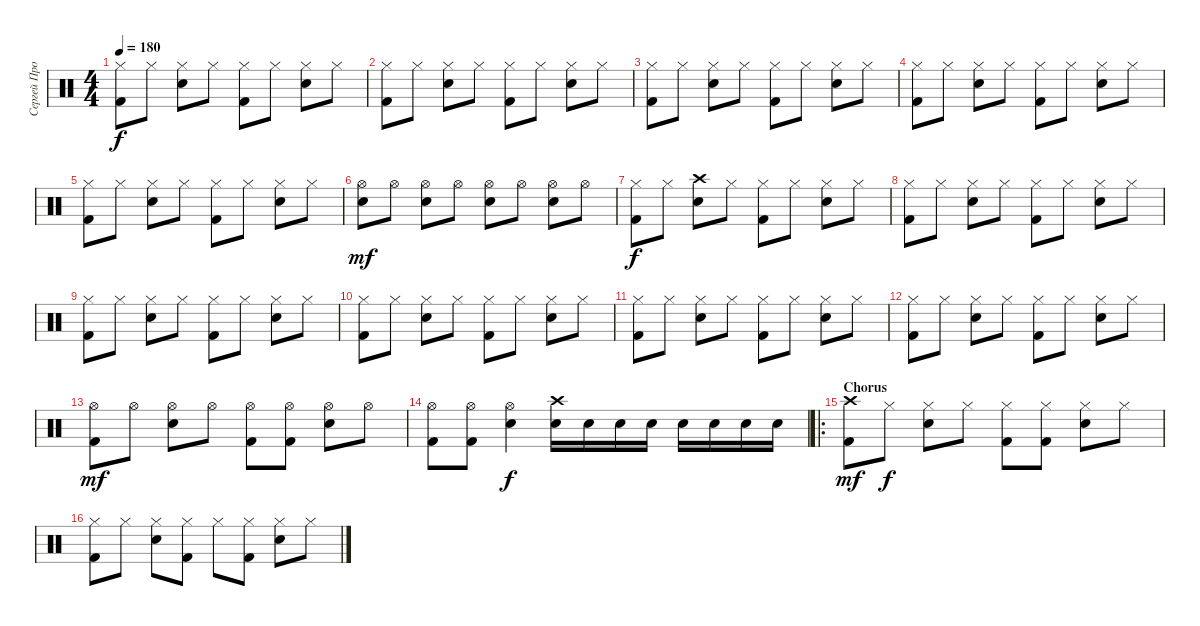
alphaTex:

\track ("Сергей Прокофьев" "Сергей Про") {instrument percussion}
\staff {score}
\articulation defaults
\ts (4 4)
\tempo 180
\clef neutral
\ks c
("Hi-Hat (closed)" "Kick (hit) 2").8{dy f} "Hi-Hat (closed)".8 ("Hi-Hat (closed)" "Snare (hit) 2").8 "Hi-Hat (closed)".8 ("Hi-Hat (closed)" "Kick (hit) 2").8 "Hi-Hat (closed)".8 ("Hi-Hat (closed)" "Snare (hit) 2").8 "Hi-Hat (closed)".8 |
("Hi-Hat (closed)" "Kick (hit) 2").8 "Hi-Hat (closed)".8 ("Hi-Hat (closed)" "Snare (hit) 2").8 "Hi-Hat (closed)".8 ("Hi-Hat (closed)" "Kick (hit) 2").8 "Hi-Hat (closed)".8 ("Hi-Hat (closed)" "Snare (hit) 2").8 "Hi-Hat (closed)".8 |
("Hi-Hat (closed)" "Kick (hit) 2").8 "Hi-Hat (closed)".8 ("Hi-Hat (closed)" "Snare (hit) 2").8 "Hi-Hat (closed)".8 ("Hi-Hat (closed)" "Kick (hit) 2").8 "Hi-Hat (closed)".8 ("Hi-Hat (closed)" "Snare (hit) 2").8 "Hi-Hat (closed)".8 |
("Hi-Hat (closed)" "Kick (hit) 2").8 "Hi-Hat (closed)".8 ("Hi-Hat (closed)" "Snare (hit) 2").8 "Hi-Hat (closed)".8 ("Hi-Hat (closed)" "Kick (hit) 2").8 "Hi-Hat (closed)".8 ("Hi-Hat (closed)" "Snare (hit) 2").8 "Hi-Hat (closed)".8 |
("Hi-Hat (closed)" "Kick (hit) 2").8 "Hi-Hat (closed)".8 ("Hi-Hat (closed)" "Snare (hit) 2").8 "Hi-Hat (closed)".8 ("Hi-Hat (closed)" "Kick (hit) 2").8 "Hi-Hat (closed)".8 ("Hi-Hat (closed)" "Snare (hit) 2").8 "Hi-Hat (closed)".8 |
("Hi-Hat (open)" "Snare (hit) 2").8{dy mf} "Hi-Hat (open)".8 ("Hi-Hat (open)" "Snare (hit) 2").8 "Hi-Hat (open)".8 ("Hi-Hat (open)" "Snare (hit) 2").8 "Hi-Hat (open)".8 ("Hi-Hat (open)" "Snare (hit) 2").8 "Hi-Hat (open)".8 |
("Hi-Hat (closed)" "Kick (hit) 2").8{dy f} "Hi-Hat (closed)".8 ("Crash high (hit)" "Snare (hit) 2").8 "Hi-Hat (closed)".8 ("Hi-Hat (closed)" "Kick (hit) 2").8 "Hi-Hat (closed)".8 ("Hi-Hat (closed)" "Snare (hit) 2").8 "Hi-Hat (closed)".8 |
("Hi-Hat (closed)" "Kick (hit) 2").8 "Hi-Hat (closed)".8 ("Hi-Hat (closed)" "Snare (hit) 2").8 "Hi-Hat (closed)".8 ("Hi-Hat (closed)" "Kick (hit) 2").8 "Hi-Hat (closed)".8 ("Hi-Hat (closed)" "Snare (hit) 2").8 "Hi-Hat (closed)".8 |
("Hi-Hat (closed)" "Kick (hit) 2").8 "Hi-Hat (closed)".8 ("Hi-Hat (closed)" "Snare (hit) 2").8 "Hi-Hat (closed)".8 ("Hi-Hat (closed)" "Kick (hit) 2").8 "Hi-Hat (closed)".8 ("Hi-Hat (closed)" "Snare (hit) 2").8 "Hi-Hat (closed)".8 |
("Hi-Hat (closed)" "Kick (hit) 2").8 "Hi-Hat (closed)".8 ("Hi-Hat (closed)" "Snare (hit) 2").8 "Hi-Hat (closed)".8 ("Hi-Hat (closed)" "Kick (hit) 2").8 "Hi-Hat (closed)".8 ("Hi-Hat (closed)" "Snare (hit) 2").8 "Hi-Hat (closed)".8 |
("Hi-Hat (closed)" "Kick (hit) 2").8 "Hi-Hat (closed)".8 ("Hi-Hat (closed)" "Snare (hit) 2").8 "Hi-Hat (closed)".8 ("Hi-Hat (closed)" "Kick (hit) 2").8 "Hi-Hat (closed)".8 ("Hi-Hat (closed)" "Snare (hit) 2").8 "Hi-Hat (closed)".8 |
("Hi-Hat (closed)" "Kick (hit) 2").8 "Hi-Hat (closed)".8 ("Hi-Hat (closed)" "Snare (hit) 2").8 "Hi-Hat (closed)".8 ("Hi-Hat (closed)" "Kick (hit) 2").8 "Hi-Hat (closed)".8 ("Hi-Hat (closed)" "Snare (hit) 2").8 "Hi-Hat (closed)".8 |
("Hi-Hat (open)" "Kick (hit) 2").8{dy mf} "Hi-Hat (open)".8 ("Hi-Hat (open)" "Snare (hit) 2").8 "Hi-Hat (open)".8 ("Hi-Hat (open)" "Kick (hit) 2").8 ("Hi-Hat (open)" "Kick (hit) 2").8 ("Hi-Hat (open)" "Snare (hit) 2").8 "Hi-Hat (open)".8 |
("Hi-Hat (open)" "Kick (hit) 2").8 ("Hi-Hat (open)" "Kick (hit) 2").8 ("Hi-Hat (open)" "Snare (hit) 2").4{dy f} ("Crash high (hit)" "Snare (hit) 2").16 "Snare (hit) 2".16 "Snare (hit) 2".16 "Snare (hit) 2".16 "Snare (hit) 2".16 "Snare (hit) 2".16 "Snare (hit) 2".16 "Snare (hit) 2".16 |
\ro
\section ("" "Chorus")
("Crash high (hit)" "Kick (hit) 2").8{dy mf} "Hi-Hat (closed)".8{dy f} ("Hi-Hat (closed)" "Snare (hit) 2").8 "Hi-Hat (closed)".8 ("Hi-Hat (closed)" "Kick (hit) 2").8 ("Hi-Hat (closed)" "Kick (hit) 2").8 ("Hi-Hat (closed)" "Snare (hit) 2").8 "Hi-Hat (closed)".8 |
("Hi-Hat (closed)" "Kick (hit) 2").8 "Hi-Hat (closed)".8 ("Hi-Hat (closed)" "Snare (hit) 2").8 ("Hi-Hat (closed)" "Kick (hit) 2").8 "Hi-Hat (closed)".8 ("Hi-Hat (closed)" "Kick (hit) 2").8 ("Hi-Hat (closed)" "Snare (hit) 2").8 "Hi-Hat (closed)".8
